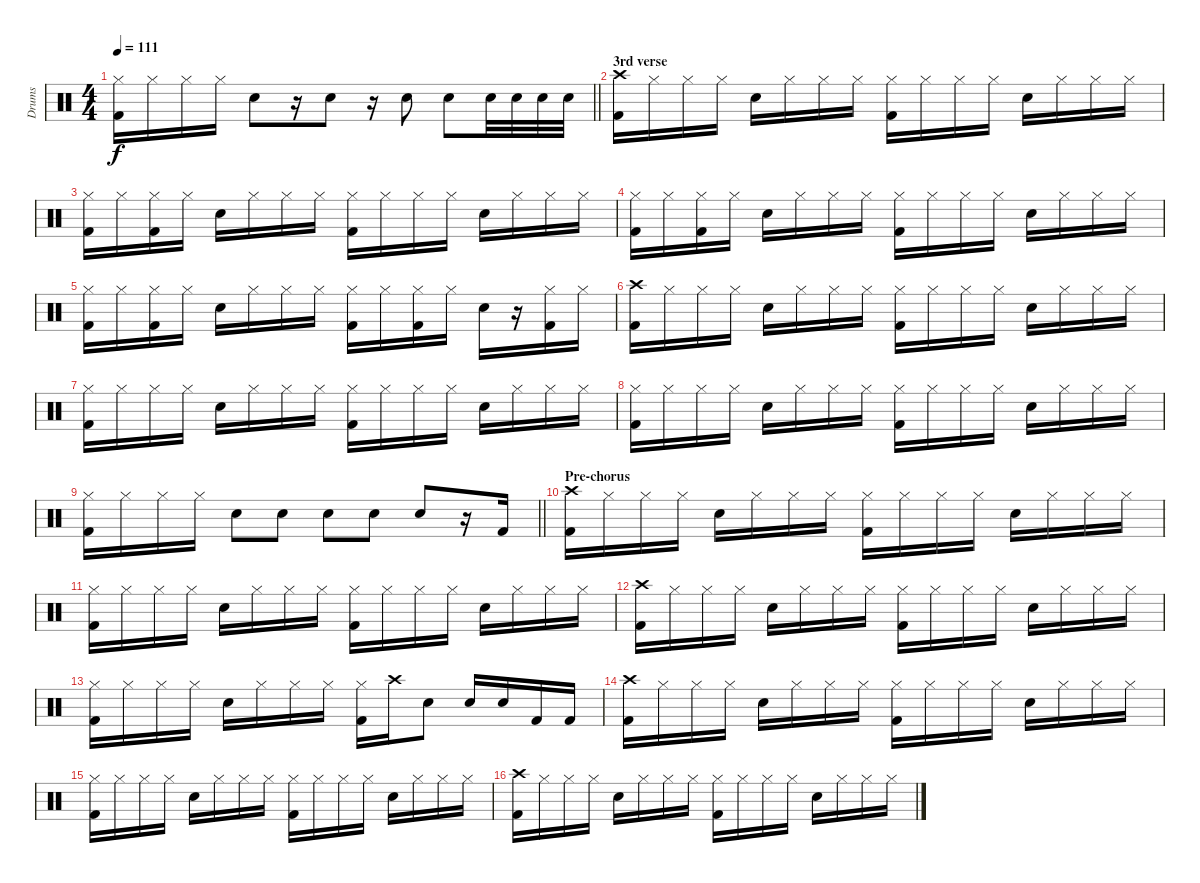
\track ("Drums" "Drums") {instrument percussion}
\staff {score}
\articulation defaults
\ts (4 4)
\tempo 111
\clef neutral
\barLineRight lightlight
\ks c
("Hi-Hat (closed)" "Kick (hit) 2").16{dy f} "Hi-Hat (closed)".16 "Hi-Hat (closed)".16 "Hi-Hat (closed)".16 "Snare (hit) 2".8 r.16 "Snare (hit) 2".8 r.16 "Snare (hit) 2".8 "Snare (hit) 2".8 "Snare (hit) 2".32 "Snare (hit) 2".32 "Snare (hit) 2".32 "Snare (hit) 2".32 |
\section ("" "3rd verse")
("Crash high (hit)" "Kick (hit) 2").16 "Hi-Hat (closed)".16 "Hi-Hat (closed)".16 "Hi-Hat (closed)".16 "Snare (hit) 2".16 "Hi-Hat (closed)".16 "Hi-Hat (closed)".16 "Hi-Hat (closed)".16 ("Hi-Hat (closed)" "Kick (hit) 2").16 "Hi-Hat (closed)".16 "Hi-Hat (closed)".16 "Hi-Hat (closed)".16 "Snare (hit) 2".16 "Hi-Hat (closed)".16 "Hi-Hat (closed)".16 "Hi-Hat (closed)".16 |
("Hi-Hat (closed)" "Kick (hit) 2").16 "Hi-Hat (closed)".16 ("Hi-Hat (closed)" "Kick (hit) 2").16 "Hi-Hat (closed)".16 "Snare (hit) 2".16 "Hi-Hat (closed)".16 "Hi-Hat (closed)".16 "Hi-Hat (closed)".16 ("Hi-Hat (closed)" "Kick (hit) 2").16 "Hi-Hat (closed)".16 "Hi-Hat (closed)".16 "Hi-Hat (closed)".16 "Snare (hit) 2".16 "Hi-Hat (closed)".16 "Hi-Hat (closed)".16 "Hi-Hat (closed)".16 |
("Hi-Hat (closed)" "Kick (hit) 2").16 "Hi-Hat (closed)".16 ("Hi-Hat (closed)" "Kick (hit) 2").16 "Hi-Hat (closed)".16 "Snare (hit) 2".16 "Hi-Hat (closed)".16 "Hi-Hat (closed)".16 "Hi-Hat (closed)".16 ("Hi-Hat (closed)" "Kick (hit) 2").16 "Hi-Hat (closed)".16 "Hi-Hat (closed)".16 "Hi-Hat (closed)".16 "Snare (hit) 2".16 "Hi-Hat (closed)".16 "Hi-Hat (closed)".16 "Hi-Hat (closed)".16 |
("Hi-Hat (closed)" "Kick (hit) 2").16 "Hi-Hat (closed)".16 ("Hi-Hat (closed)" "Kick (hit) 2").16 "Hi-Hat (closed)".16 "Snare (hit) 2".16 "Hi-Hat (closed)".16 "Hi-Hat (closed)".16 "Hi-Hat (closed)".16 ("Hi-Hat (closed)" "Kick (hit) 2").16 "Hi-Hat (closed)".16 ("Hi-Hat (closed)" "Kick (hit) 2").16 "Hi-Hat (closed)".16 "Snare (hit) 2".16 r.16 ("Hi-Hat (closed)" "Kick (hit) 2").16 "Hi-Hat (closed)".16 |
("Crash high (hit)" "Kick (hit) 2").16 "Hi-Hat (closed)".16 "Hi-Hat (closed)".16 "Hi-Hat (closed)".16 "Snare (hit) 2".16 "Hi-Hat (closed)".16 "Hi-Hat (closed)".16 "Hi-Hat (closed)".16 ("Hi-Hat (closed)" "Kick (hit) 2").16 "Hi-Hat (closed)".16 "Hi-Hat (closed)".16 "Hi-Hat (closed)".16 "Snare (hit) 2".16 "Hi-Hat (closed)".16 "Hi-Hat (closed)".16 "Hi-Hat (closed)".16 |
("Hi-Hat (closed)" "Kick (hit) 2").16 "Hi-Hat (closed)".16 "Hi-Hat (closed)".16 "Hi-Hat (closed)".16 "Snare (hit) 2".16 "Hi-Hat (closed)".16 "Hi-Hat (closed)".16 "Hi-Hat (closed)".16 ("Hi-Hat (closed)" "Kick (hit) 2").16 "Hi-Hat (closed)".16 "Hi-Hat (closed)".16 "Hi-Hat (closed)".16 "Snare (hit) 2".16 "Hi-Hat (closed)".16 "Hi-Hat (closed)".16 "Hi-Hat (closed)".16 |
("Hi-Hat (closed)" "Kick (hit) 2").16 "Hi-Hat (closed)".16 "Hi-Hat (closed)".16 "Hi-Hat (closed)".16 "Snare (hit) 2".16 "Hi-Hat (closed)".16 "Hi-Hat (closed)".16 "Hi-Hat (closed)".16 ("Hi-Hat (closed)" "Kick (hit) 2").16 "Hi-Hat (closed)".16 "Hi-Hat (closed)".16 "Hi-Hat (closed)".16 "Snare (hit) 2".16 "Hi-Hat (closed)".16 "Hi-Hat (closed)".16 "Hi-Hat (closed)".16 |
\barLineRight lightlight
("Hi-Hat (closed)" "Kick (hit) 2").16 "Hi-Hat (closed)".16 "Hi-Hat (closed)".16 "Hi-Hat (closed)".16 "Snare (hit) 2".8 "Snare (hit) 2".8 "Snare (hit) 2".8 "Snare (hit) 2".8 "Snare (hit) 2".8 r.16 "Kick (hit) 2".16 |
\section ("" "Pre-chorus")
("Crash high (hit)" "Kick (hit) 2").16 "Hi-Hat (closed)".16 "Hi-Hat (closed)".16 "Hi-Hat (closed)".16 "Snare (hit) 2".16 "Hi-Hat (closed)".16 "Hi-Hat (closed)".16 "Hi-Hat (closed)".16 ("Hi-Hat (closed)" "Kick (hit) 2").16 "Hi-Hat (closed)".16 "Hi-Hat (closed)".16 "Hi-Hat (closed)".16 "Snare (hit) 2".16 "Hi-Hat (closed)".16 "Hi-Hat (closed)".16 "Hi-Hat (closed)".16 |
("Hi-Hat (closed)" "Kick (hit) 2").16 "Hi-Hat (closed)".16 "Hi-Hat (closed)".16 "Hi-Hat (closed)".16 "Snare (hit) 2".16 "Hi-Hat (closed)".16 "Hi-Hat (closed)".16 "Hi-Hat (closed)".16 ("Hi-Hat (closed)" "Kick (hit) 2").16 "Hi-Hat (closed)".16 "Hi-Hat (closed)".16 "Hi-Hat (closed)".16 "Snare (hit) 2".16 "Hi-Hat (closed)".16 "Hi-Hat (closed)".16 "Hi-Hat (closed)".16 |
("Crash high (hit)" "Kick (hit) 2").16 "Hi-Hat (closed)".16 "Hi-Hat (closed)".16 "Hi-Hat (closed)".16 "Snare (hit) 2".16 "Hi-Hat (closed)".16 "Hi-Hat (closed)".16 "Hi-Hat (closed)".16 ("Hi-Hat (closed)" "Kick (hit) 2").16 "Hi-Hat (closed)".16 "Hi-Hat (closed)".16 "Hi-Hat (closed)".16 "Snare (hit) 2".16 "Hi-Hat (closed)".16 "Hi-Hat (closed)".16 "Hi-Hat (closed)".16 |
("Hi-Hat (closed)" "Kick (hit) 2").16 "Hi-Hat (closed)".16 "Hi-Hat (closed)".16 "Hi-Hat (closed)".16 "Snare (hit) 2".16 "Hi-Hat (closed)".16 "Hi-Hat (closed)".16 "Hi-Hat (closed)".16 ("Hi-Hat (closed)" "Kick (hit) 2").16 "Crash high (hit)".16 "Snare (hit) 2".8 "Snare (hit) 2".16 "Snare (hit) 2".16 "Kick (hit) 2".16 "Kick (hit) 2".16 |
("Crash high (hit)" "Kick (hit) 2").16 "Hi-Hat (closed)".16 "Hi-Hat (closed)".16 "Hi-Hat (closed)".16 "Snare (hit) 2".16 "Hi-Hat (closed)".16 "Hi-Hat (closed)".16 "Hi-Hat (closed)".16 ("Hi-Hat (closed)" "Kick (hit) 2").16 "Hi-Hat (closed)".16 "Hi-Hat (closed)".16 "Hi-Hat (closed)".16 "Snare (hit) 2".16 "Hi-Hat (closed)".16 "Hi-Hat (closed)".16 "Hi-Hat (closed)".16 |
("Hi-Hat (closed)" "Kick (hit) 2").16 "Hi-Hat (closed)".16 "Hi-Hat (closed)".16 "Hi-Hat (closed)".16 "Snare (hit) 2".16 "Hi-Hat (closed)".16 "Hi-Hat (closed)".16 "Hi-Hat (closed)".16 ("Hi-Hat (closed)" "Kick (hit) 2").16 "Hi-Hat (closed)".16 "Hi-Hat (closed)".16 "Hi-Hat (closed)".16 "Snare (hit) 2".16 "Hi-Hat (closed)".16 "Hi-Hat (closed)".16 "Hi-Hat (closed)".16 |
("Crash high (hit)" "Kick (hit) 2").16 "Hi-Hat (closed)".16 "Hi-Hat (closed)".16 "Hi-Hat (closed)".16 "Snare (hit) 2".16 "Hi-Hat (closed)".16 "Hi-Hat (closed)".16 "Hi-Hat (closed)".16 ("Hi-Hat (closed)" "Kick (hit) 2").16 "Hi-Hat (closed)".16 "Hi-Hat (closed)".16 "Hi-Hat (closed)".16 "Snare (hit) 2".16 "Hi-Hat (closed)".16 "Hi-Hat (closed)".16 "Hi-Hat (closed)".16
